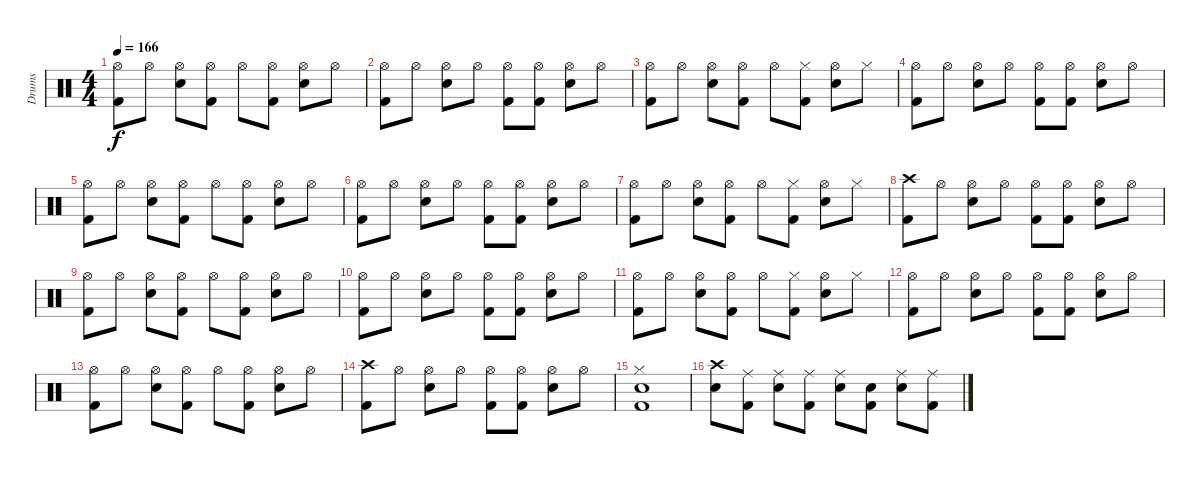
\track ("Drums" "Drums") {instrument percussion}
\staff {score}
\articulation defaults
\ts (4 4)
\tempo 166
\clef neutral
\ks c
("Hi-Hat (open)" "Kick (hit) 2").8{dy f} "Hi-Hat (open)".8 ("Hi-Hat (open)" "Snare (hit) 2").8 ("Hi-Hat (open)" "Kick (hit) 2").8 "Hi-Hat (open)".8 ("Hi-Hat (open)" "Kick (hit) 2").8 ("Hi-Hat (open)" "Snare (hit) 2").8 "Hi-Hat (open)".8 |
("Hi-Hat (open)" "Kick (hit) 2").8 "Hi-Hat (open)".8 ("Hi-Hat (open)" "Snare (hit) 2").8 "Hi-Hat (open)".8 ("Hi-Hat (open)" "Kick (hit) 2").8 ("Hi-Hat (open)" "Kick (hit) 2").8 ("Hi-Hat (open)" "Snare (hit) 2").8 "Hi-Hat (open)".8 |
("Hi-Hat (open)" "Kick (hit) 2").8 "Hi-Hat (open)".8 ("Hi-Hat (open)" "Snare (hit) 2").8 ("Hi-Hat (open)" "Kick (hit) 2").8 "Hi-Hat (open)".8 ("Hi-Hat (closed)" "Kick (hit) 2").8 ("Hi-Hat (open)" "Snare (hit) 2").8 "Hi-Hat (closed)".8 |
("Hi-Hat (open)" "Kick (hit) 2").8 "Hi-Hat (open)".8 ("Hi-Hat (open)" "Snare (hit) 2").8 "Hi-Hat (open)".8 ("Hi-Hat (open)" "Kick (hit) 2").8 ("Hi-Hat (open)" "Kick (hit) 2").8 ("Hi-Hat (open)" "Snare (hit) 2").8 "Hi-Hat (open)".8 |
("Hi-Hat (open)" "Kick (hit) 2").8 "Hi-Hat (open)".8 ("Hi-Hat (open)" "Snare (hit) 2").8 ("Hi-Hat (open)" "Kick (hit) 2").8 "Hi-Hat (open)".8 ("Hi-Hat (open)" "Kick (hit) 2").8 ("Hi-Hat (open)" "Snare (hit) 2").8 "Hi-Hat (open)".8 |
("Hi-Hat (open)" "Kick (hit) 2").8 "Hi-Hat (open)".8 ("Hi-Hat (open)" "Snare (hit) 2").8 "Hi-Hat (open)".8 ("Hi-Hat (open)" "Kick (hit) 2").8 ("Hi-Hat (open)" "Kick (hit) 2").8 ("Hi-Hat (open)" "Snare (hit) 2").8 "Hi-Hat (open)".8 |
("Hi-Hat (open)" "Kick (hit) 2").8 "Hi-Hat (open)".8 ("Hi-Hat (open)" "Snare (hit) 2").8 ("Hi-Hat (open)" "Kick (hit) 2").8 "Hi-Hat (open)".8 ("Hi-Hat (closed)" "Kick (hit) 2").8 ("Hi-Hat (open)" "Snare (hit) 2").8 "Hi-Hat (closed)".8 |
("Crash high (hit)" "Kick (hit) 2").8 "Hi-Hat (open)".8 ("Hi-Hat (open)" "Snare (hit) 2").8 "Hi-Hat (open)".8 ("Hi-Hat (open)" "Kick (hit) 2").8 ("Hi-Hat (open)" "Kick (hit) 2").8 ("Hi-Hat (open)" "Snare (hit) 2").8 "Hi-Hat (open)".8 |
("Hi-Hat (open)" "Kick (hit) 2").8 "Hi-Hat (open)".8 ("Hi-Hat (open)" "Snare (hit) 2").8 ("Hi-Hat (open)" "Kick (hit) 2").8 "Hi-Hat (open)".8 ("Hi-Hat (open)" "Kick (hit) 2").8 ("Hi-Hat (open)" "Snare (hit) 2").8 "Hi-Hat (open)".8 |
("Hi-Hat (open)" "Kick (hit) 2").8 "Hi-Hat (open)".8 ("Hi-Hat (open)" "Snare (hit) 2").8 "Hi-Hat (open)".8 ("Hi-Hat (open)" "Kick (hit) 2").8 ("Hi-Hat (open)" "Kick (hit) 2").8 ("Hi-Hat (open)" "Snare (hit) 2").8 "Hi-Hat (open)".8 |
("Hi-Hat (open)" "Kick (hit) 2").8 "Hi-Hat (open)".8 ("Hi-Hat (open)" "Snare (hit) 2").8 ("Hi-Hat (open)" "Kick (hit) 2").8 "Hi-Hat (open)".8 ("Hi-Hat (closed)" "Kick (hit) 2").8 ("Hi-Hat (open)" "Snare (hit) 2").8 "Hi-Hat (closed)".8 |
("Hi-Hat (open)" "Kick (hit) 2").8 "Hi-Hat (open)".8 ("Hi-Hat (open)" "Snare (hit) 2").8 "Hi-Hat (open)".8 ("Hi-Hat (open)" "Kick (hit) 2").8 ("Hi-Hat (open)" "Kick (hit) 2").8 ("Hi-Hat (open)" "Snare (hit) 2").8 "Hi-Hat (open)".8 |
("Hi-Hat (open)" "Kick (hit) 2").8 "Hi-Hat (open)".8 ("Hi-Hat (open)" "Snare (hit) 2").8 ("Hi-Hat (open)" "Kick (hit) 2").8 "Hi-Hat (open)".8 ("Hi-Hat (open)" "Kick (hit) 2").8 ("Hi-Hat (open)" "Snare (hit) 2").8 "Hi-Hat (open)".8 |
("Crash high (hit)" "Kick (hit) 2").8 "Hi-Hat (open)".8 ("Hi-Hat (open)" "Snare (hit) 2").8 "Hi-Hat (open)".8 ("Hi-Hat (open)" "Kick (hit) 2").8 ("Hi-Hat (open)" "Kick (hit) 2").8 ("Hi-Hat (open)" "Snare (hit) 2").8 "Hi-Hat (open)".8 |
("Hi-Hat (closed)" "Snare (hit) 2" "Kick (hit) 2").1 |
("Crash high (hit)" "Snare (hit) 2").8 ("Ride (middle)" "Kick (hit) 2").8 ("Ride (middle)" "Snare (hit) 2").8 ("Ride (middle)" "Kick (hit) 2").8 ("Ride (middle)" "Snare (hit) 2").8 ("Snare (hit)" "Kick (hit) 2").8 ("Ride (middle)" "Snare (hit) 2").8 ("Ride (middle)" "Kick (hit) 2").8
